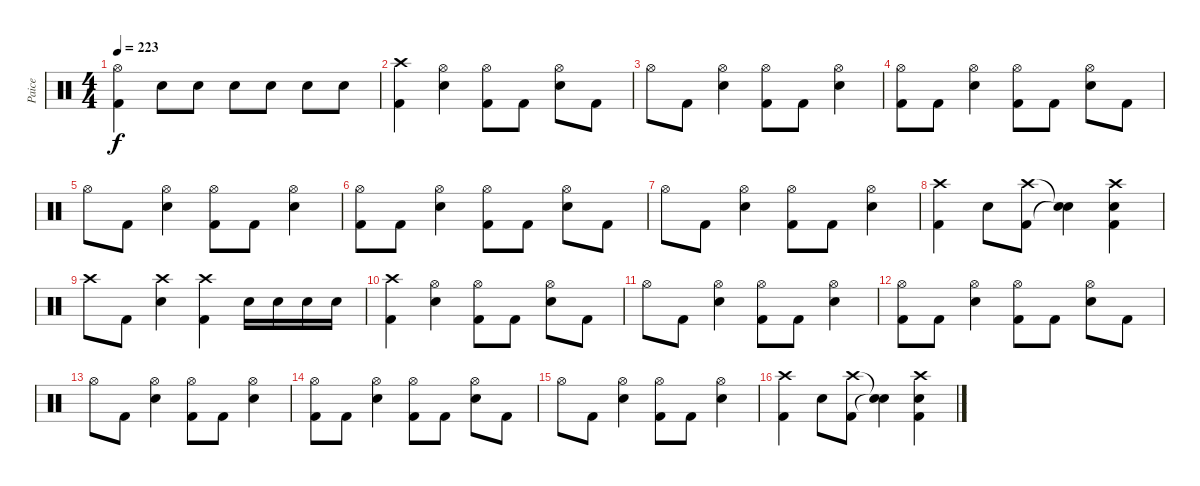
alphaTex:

\track ("Paice" "Paice") {instrument percussion}
\staff {score}
\articulation defaults
\ts (4 4)
\tempo 223
\clef neutral
\ks c
("Hi-Hat (open)" "Kick (hit) 2").4{dy f} "Electric Snare (hit)".8 "Electric Snare (hit)".8 "Electric Snare (hit)".8 "Electric Snare (hit)".8 "Electric Snare (hit)".8 "Electric Snare (hit)".8 |
("Crash high (hit)" "Kick (hit) 2").4 ("Hi-Hat (open)" "Electric Snare (hit)").4 ("Hi-Hat (open)" "Kick (hit) 2").8 "Kick (hit) 2".8 ("Hi-Hat (open)" "Electric Snare (hit)").8 "Kick (hit) 2".8 |
"Hi-Hat (open)".8 "Kick (hit) 2".8 ("Hi-Hat (open)" "Electric Snare (hit)").4 ("Hi-Hat (open)" "Kick (hit) 2").8 "Kick (hit) 2".8 ("Hi-Hat (open)" "Electric Snare (hit)").4 |
("Hi-Hat (open)" "Kick (hit) 2").8 "Kick (hit) 2".8 ("Hi-Hat (open)" "Electric Snare (hit)").4 ("Hi-Hat (open)" "Kick (hit) 2").8 "Kick (hit) 2".8 ("Hi-Hat (open)" "Electric Snare (hit)").8 "Kick (hit) 2".8 |
"Hi-Hat (open)".8 "Kick (hit) 2".8 ("Hi-Hat (open)" "Electric Snare (hit)").4 ("Hi-Hat (open)" "Kick (hit) 2").8 "Kick (hit) 2".8 ("Hi-Hat (open)" "Electric Snare (hit)").4 |
("Hi-Hat (open)" "Kick (hit) 2").8 "Kick (hit) 2".8 ("Hi-Hat (open)" "Electric Snare (hit)").4 ("Hi-Hat (open)" "Kick (hit) 2").8 "Kick (hit) 2".8 ("Hi-Hat (open)" "Electric Snare (hit)").8 "Kick (hit) 2".8 |
"Hi-Hat (open)".8 "Kick (hit) 2".8 ("Hi-Hat (open)" "Electric Snare (hit)").4 ("Hi-Hat (open)" "Kick (hit) 2").8 "Kick (hit) 2".8 ("Hi-Hat (open)" "Electric Snare (hit)").4 |
("Crash high (hit)" "Kick (hit) 2").4 "Electric Snare (hit)".8 ("Crash high (hit)" "Kick (hit) 2").8 ("Snare (hit)"{t} "Snare (hit)"{t}).4 ("Crash high (hit)" "Electric Snare (hit)" "Kick (hit) 2").4 |
"Crash high (hit)".8 "Kick (hit) 2".8 ("Crash high (hit)" "Electric Snare (hit)").4 ("Crash high (hit)" "Kick (hit) 2").4 "Electric Snare (hit)".16 "Electric Snare (hit)".16 "Electric Snare (hit)".16 "Electric Snare (hit)".16 |
("Crash high (hit)" "Kick (hit) 2").4 ("Hi-Hat (open)" "Electric Snare (hit)").4 ("Hi-Hat (open)" "Kick (hit) 2").8 "Kick (hit) 2".8 ("Hi-Hat (open)" "Electric Snare (hit)").8 "Kick (hit) 2".8 |
"Hi-Hat (open)".8 "Kick (hit) 2".8 ("Hi-Hat (open)" "Electric Snare (hit)").4 ("Hi-Hat (open)" "Kick (hit) 2").8 "Kick (hit) 2".8 ("Hi-Hat (open)" "Electric Snare (hit)").4 |
("Hi-Hat (open)" "Kick (hit) 2").8 "Kick (hit) 2".8 ("Hi-Hat (open)" "Electric Snare (hit)").4 ("Hi-Hat (open)" "Kick (hit) 2").8 "Kick (hit) 2".8 ("Hi-Hat (open)" "Electric Snare (hit)").8 "Kick (hit) 2".8 |
"Hi-Hat (open)".8 "Kick (hit) 2".8 ("Hi-Hat (open)" "Electric Snare (hit)").4 ("Hi-Hat (open)" "Kick (hit) 2").8 "Kick (hit) 2".8 ("Hi-Hat (open)" "Electric Snare (hit)").4 |
("Hi-Hat (open)" "Kick (hit) 2").8 "Kick (hit) 2".8 ("Hi-Hat (open)" "Electric Snare (hit)").4 ("Hi-Hat (open)" "Kick (hit) 2").8 "Kick (hit) 2".8 ("Hi-Hat (open)" "Electric Snare (hit)").8 "Kick (hit) 2".8 |
"Hi-Hat (open)".8 "Kick (hit) 2".8 ("Hi-Hat (open)" "Electric Snare (hit)").4 ("Hi-Hat (open)" "Kick (hit) 2").8 "Kick (hit) 2".8 ("Hi-Hat (open)" "Electric Snare (hit)").4 |
("Crash high (hit)" "Kick (hit) 2").4 "Electric Snare (hit)".8 ("Crash high (hit)" "Kick (hit) 2").8 ("Snare (hit)"{t} "Snare (hit)"{t}).4 ("Crash high (hit)" "Electric Snare (hit)" "Kick (hit) 2").4
